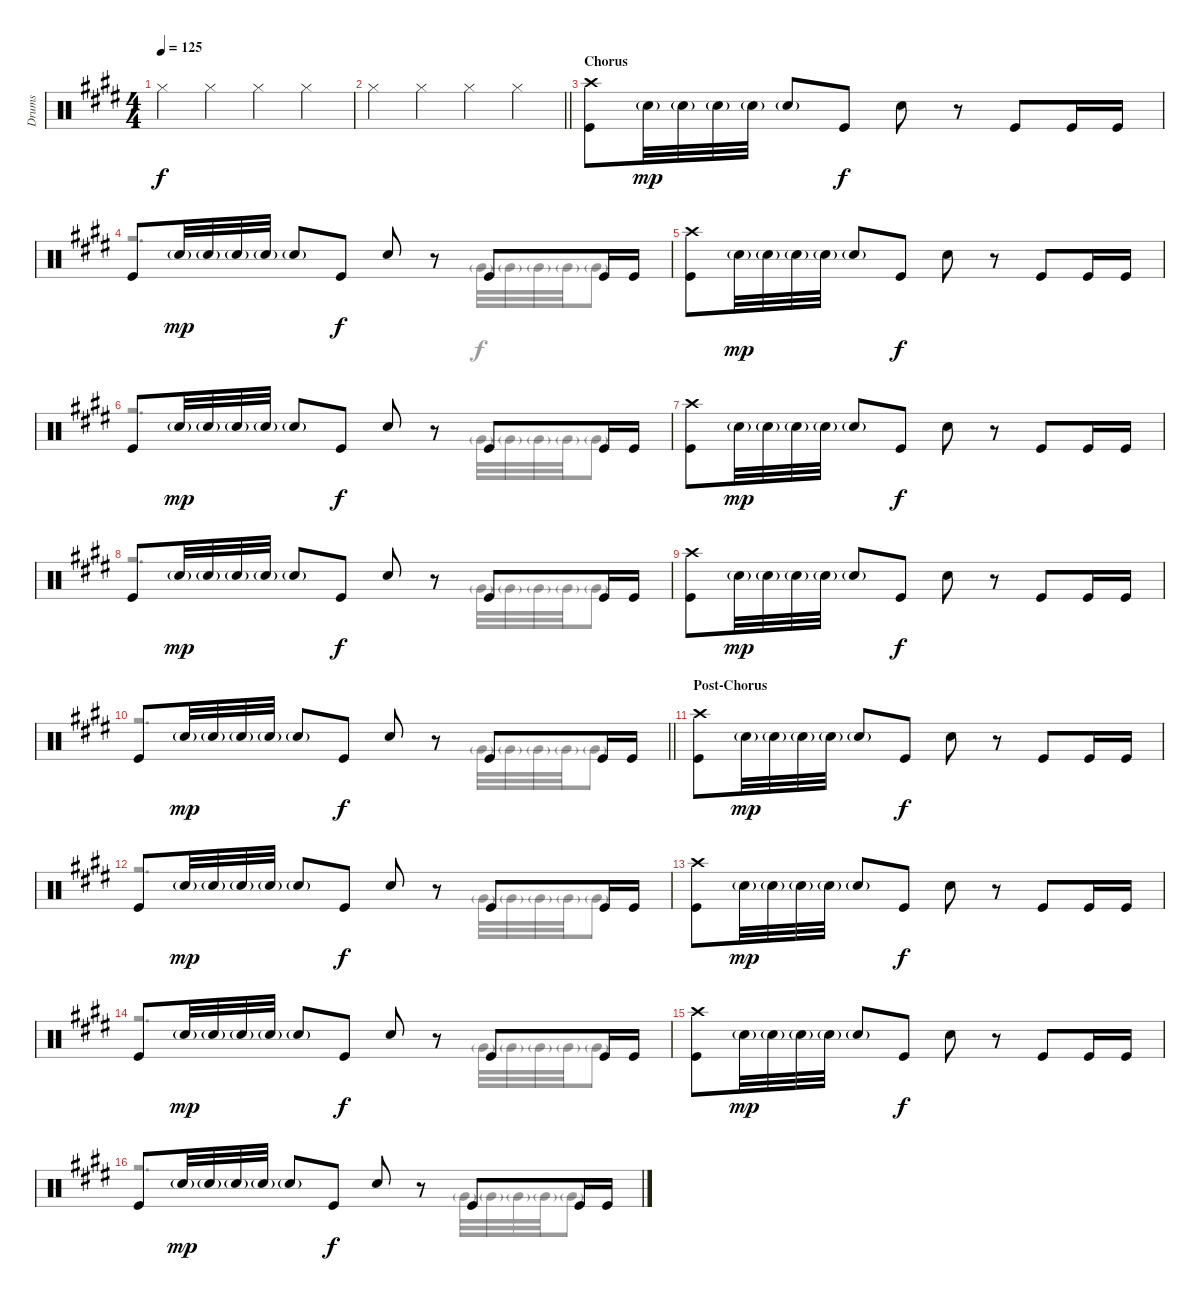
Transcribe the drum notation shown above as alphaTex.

\track ("Drums" "Drums") {instrument percussion}
\staff {score}
\articulation defaults
\voice
\ts (4 4)
\tempo 125
\clef neutral
\ks c#minor "Hi-Hat (closed)".4{dy f} "Hi-Hat (closed)".4 "Hi-Hat (closed)".4 "Hi-Hat (closed)".4
|
\barLineRight lightlight "Hi-Hat (closed)".4 "Hi-Hat (closed)".4 "Hi-Hat (closed)".4 "Hi-Hat (closed)".4
|
\section ("" "Chorus")
("Crash high (hit)" "Kick (hit)").8 "Electric Snare (hit)"{g}.32{dy mp} "Electric Snare (hit)"{g}.32 "Electric Snare (hit)"{g}.32 "Electric Snare (hit)"{g}.32 "Electric Snare (hit)"{g}.8 "Kick (hit)".8{dy f} "Electric Snare (hit)".8 r.8 "Kick (hit)".8 "Kick (hit)".16 "Kick (hit)".16 |
"Kick (hit)".8 "Electric Snare (hit)"{g}.32{dy mp} "Electric Snare (hit)"{g}.32 "Electric Snare (hit)"{g}.32 "Electric Snare (hit)"{g}.32 "Electric Snare (hit)"{g}.8 "Kick (hit)".8{dy f} "Electric Snare (hit)".8 r.8 "Kick (hit)".8 "Kick (hit)".16 "Kick (hit)".16 |
("Crash high (hit)" "Kick (hit)").8 "Electric Snare (hit)"{g}.32{dy mp} "Electric Snare (hit)"{g}.32 "Electric Snare (hit)"{g}.32 "Electric Snare (hit)"{g}.32 "Electric Snare (hit)"{g}.8 "Kick (hit)".8{dy f} "Electric Snare (hit)".8 r.8 "Kick (hit)".8 "Kick (hit)".16 "Kick (hit)".16 |
"Kick (hit)".8 "Electric Snare (hit)"{g}.32{dy mp} "Electric Snare (hit)"{g}.32 "Electric Snare (hit)"{g}.32 "Electric Snare (hit)"{g}.32 "Electric Snare (hit)"{g}.8 "Kick (hit)".8{dy f} "Electric Snare (hit)".8 r.8 "Kick (hit)".8 "Kick (hit)".16 "Kick (hit)".16 |
("Crash high (hit)" "Kick (hit)").8 "Electric Snare (hit)"{g}.32{dy mp} "Electric Snare (hit)"{g}.32 "Electric Snare (hit)"{g}.32 "Electric Snare (hit)"{g}.32 "Electric Snare (hit)"{g}.8 "Kick (hit)".8{dy f} "Electric Snare (hit)".8 r.8 "Kick (hit)".8 "Kick (hit)".16 "Kick (hit)".16 |
"Kick (hit)".8 "Electric Snare (hit)"{g}.32{dy mp} "Electric Snare (hit)"{g}.32 "Electric Snare (hit)"{g}.32 "Electric Snare (hit)"{g}.32 "Electric Snare (hit)"{g}.8 "Kick (hit)".8{dy f} "Electric Snare (hit)".8 r.8 "Kick (hit)".8 "Kick (hit)".16 "Kick (hit)".16 |
("Crash high (hit)" "Kick (hit)").8 "Electric Snare (hit)"{g}.32{dy mp} "Electric Snare (hit)"{g}.32 "Electric Snare (hit)"{g}.32 "Electric Snare (hit)"{g}.32 "Electric Snare (hit)"{g}.8 "Kick (hit)".8{dy f} "Electric Snare (hit)".8 r.8 "Kick (hit)".8 "Kick (hit)".16 "Kick (hit)".16 |
\barLineRight lightlight "Kick (hit)".8 "Electric Snare (hit)"{g}.32{dy mp} "Electric Snare (hit)"{g}.32 "Electric Snare (hit)"{g}.32 "Electric Snare (hit)"{g}.32 "Electric Snare (hit)"{g}.8 "Kick (hit)".8{dy f} "Electric Snare (hit)".8
r.8 "Kick (hit)".8 "Kick (hit)".16 "Kick (hit)".16 |
\section ("" "Post-Chorus")
("Crash high (hit)" "Kick (hit)").8 "Electric Snare (hit)"{g}.32{dy mp} "Electric Snare (hit)"{g}.32 "Electric Snare (hit)"{g}.32 "Electric Snare (hit)"{g}.32 "Electric Snare (hit)"{g}.8 "Kick (hit)".8{dy f} "Electric Snare (hit)".8 r.8 "Kick (hit)".8 "Kick (hit)".16 "Kick (hit)".16 |
"Kick (hit)".8 "Electric Snare (hit)"{g}.32{dy mp} "Electric Snare (hit)"{g}.32 "Electric Snare (hit)"{g}.32 "Electric Snare (hit)"{g}.32 "Electric Snare (hit)"{g}.8 "Kick (hit)".8{dy f} "Electric Snare (hit)".8 r.8 "Kick (hit)".8 "Kick (hit)".16 "Kick (hit)".16 |
("Crash high (hit)" "Kick (hit)").8 "Electric Snare (hit)"{g}.32{dy mp} "Electric Snare (hit)"{g}.32 "Electric Snare (hit)"{g}.32 "Electric Snare (hit)"{g}.32 "Electric Snare (hit)"{g}.8 "Kick (hit)".8{dy f} "Electric Snare (hit)".8 r.8 "Kick (hit)".8 "Kick (hit)".16 "Kick (hit)".16 |
"Kick (hit)".8 "Electric Snare (hit)"{g}.32{dy mp} "Electric Snare (hit)"{g}.32 "Electric Snare (hit)"{g}.32 "Electric Snare (hit)"{g}.32 "Electric Snare (hit)"{g}.8 "Kick (hit)".8{dy f} "Electric Snare (hit)".8 r.8 "Kick (hit)".8 "Kick (hit)".16 "Kick (hit)".16 |
("Crash high (hit)" "Kick (hit)").8 "Electric Snare (hit)"{g}.32{dy mp} "Electric Snare (hit)"{g}.32 "Electric Snare (hit)"{g}.32 "Electric Snare (hit)"{g}.32 "Electric Snare (hit)"{g}.8 "Kick (hit)".8{dy f} "Electric Snare (hit)".8 r.8 "Kick (hit)".8 "Kick (hit)".16 "Kick (hit)".16 |
"Kick (hit)".8 "Electric Snare (hit)"{g}.32{dy mp} "Electric Snare (hit)"{g}.32 "Electric Snare (hit)"{g}.32 "Electric Snare (hit)"{g}.32 "Electric Snare (hit)"{g}.8 "Kick (hit)".8{dy f} "Electric Snare (hit)".8 r.8 "Kick (hit)".8 "Kick (hit)".16 "Kick (hit)".16
\voice
\clef neutral
\ottava regular
\simile none
\ks c#minor
|
\barLineRight lightlight
|
|
r.2{d} "Very Low Tom (hit)"{g}.32 "Very Low Tom (hit)"{g}.32 "Very Low Tom (hit)"{g}.32 "Very Low Tom (hit)"{g}.32 "Very Low Tom (hit)"{g}.8 |
|
r.2{d} "Very Low Tom (hit)"{g}.32 "Very Low Tom (hit)"{g}.32 "Very Low Tom (hit)"{g}.32 "Very Low Tom (hit)"{g}.32 "Very Low Tom (hit)"{g}.8 |
|
r.2{d} "Very Low Tom (hit)"{g}.32 "Very Low Tom (hit)"{g}.32 "Very Low Tom (hit)"{g}.32 "Very Low Tom (hit)"{g}.32 "Very Low Tom (hit)"{g}.8 |
|
\barLineRight lightlight
r.2{d} "Very Low Tom (hit)"{g}.32 "Very Low Tom (hit)"{g}.32 "Very Low Tom (hit)"{g}.32 "Very Low Tom (hit)"{g}.32 "Very Low Tom (hit)"{g}.8 |
|
r.2{d} "Very Low Tom (hit)"{g}.32 "Very Low Tom (hit)"{g}.32 "Very Low Tom (hit)"{g}.32 "Very Low Tom (hit)"{g}.32 "Very Low Tom (hit)"{g}.8 |
|
r.2{d} "Very Low Tom (hit)"{g}.32 "Very Low Tom (hit)"{g}.32 "Very Low Tom (hit)"{g}.32 "Very Low Tom (hit)"{g}.32 "Very Low Tom (hit)"{g}.8 |
|
r.2{d} "Very Low Tom (hit)"{g}.32 "Very Low Tom (hit)"{g}.32 "Very Low Tom (hit)"{g}.32 "Very Low Tom (hit)"{g}.32 "Very Low Tom (hit)"{g}.8
